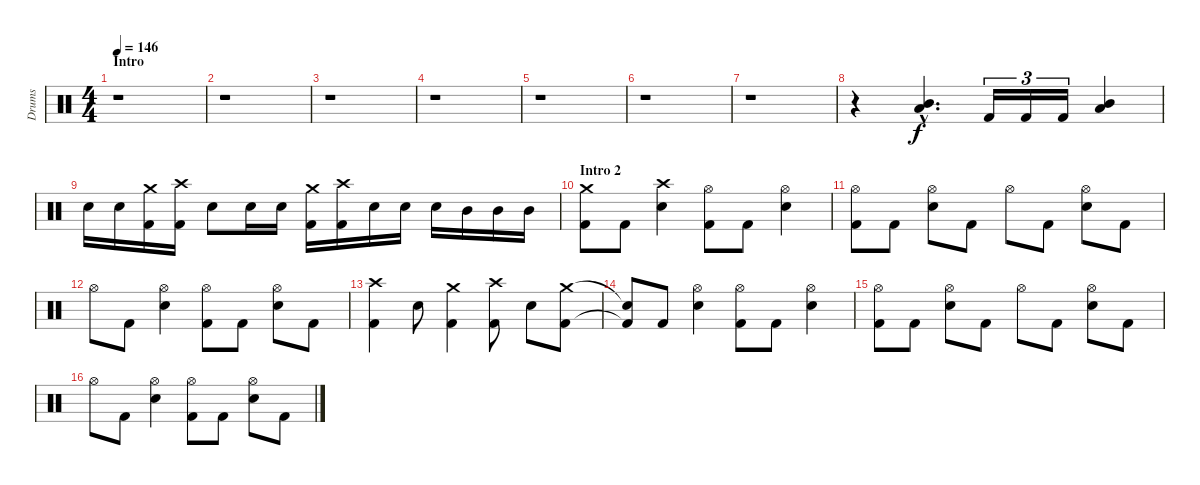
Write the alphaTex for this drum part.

\track ("Drums" "Drums") {instrument percussion}
\staff {score}
\articulation defaults
\ts (4 4)
\section ("" "Intro")
\tempo 146
\clef neutral
\ks c
r.1{dy f} |
r.1 |
r.1 |
r.1 |
r.1 |
r.1 |
r.1 |
r.4 ("Mid Tom (hit)"{hac} "Low Floor Tom (hit)"{hac}).4{d} "Kick (hit) 2".16{tu (3 2)} "Kick (hit) 2".16{tu (3 2)} "Kick (hit) 2".16{tu (3 2)} ("Mid Tom (hit)" "Low Floor Tom (hit)").4 |
"Snare (hit) 2".16 "Snare (hit) 2".16 ("Crash medium (hit)" "Kick (hit) 2").16 ("Crash high (hit)" "Kick (hit) 2").16 "Snare (hit) 2".8 "Snare (hit) 2".16 "Snare (hit) 2".16 ("Crash medium (hit)" "Kick (hit) 2").16 ("Crash high (hit)" "Kick (hit) 2").16 "Snare (hit) 2".16 "Snare (hit) 2".16 "Snare (hit) 2".16 "Mid Tom (hit)".16 "Mid Tom (hit)".16 "Mid Tom (hit)".16 |
\section ("" "Intro 2")
("Crash medium (hit)" "Kick (hit) 2").8 "Kick (hit) 2".8 ("Crash high (hit)" "Snare (hit) 2").4 ("Hi-Hat (open)" "Kick (hit) 2").8 "Kick (hit) 2".8 ("Hi-Hat (open)" "Snare (hit) 2").4 |
("Hi-Hat (open)" "Kick (hit) 2").8 "Kick (hit) 2".8 ("Hi-Hat (open)" "Snare (hit) 2").8 "Kick (hit) 2".8 "Hi-Hat (open)".8 "Kick (hit) 2".8 ("Hi-Hat (open)" "Snare (hit) 2").8 "Kick (hit) 2".8 |
"Hi-Hat (open)".8 "Kick (hit) 2".8 ("Hi-Hat (open)" "Snare (hit) 2").4 ("Hi-Hat (open)" "Kick (hit) 2").8 "Kick (hit) 2".8 ("Hi-Hat (open)" "Snare (hit) 2").8 "Kick (hit) 2".8 |
("Crash high (hit)" "Kick (hit) 2").4 "Snare (hit) 2".8 ("Crash medium (hit)" "Kick (hit) 2").4 ("Crash high (hit)" "Kick (hit) 2").8 "Snare (hit) 2".8 ("Crash medium (hit)" "Kick (hit) 2").8 |
("Snare (hit)"{t} "Kick (hit) 2"{t}).8 "Kick (hit) 2".8 ("Hi-Hat (open)" "Snare (hit) 2").4 ("Hi-Hat (open)" "Kick (hit) 2").8 "Kick (hit) 2".8 ("Hi-Hat (open)" "Snare (hit) 2").4 |
("Hi-Hat (open)" "Kick (hit) 2").8 "Kick (hit) 2".8 ("Hi-Hat (open)" "Snare (hit) 2").8 "Kick (hit) 2".8 "Hi-Hat (open)".8 "Kick (hit) 2".8 ("Hi-Hat (open)" "Snare (hit) 2").8 "Kick (hit) 2".8 |
"Hi-Hat (open)".8 "Kick (hit) 2".8 ("Hi-Hat (open)" "Snare (hit) 2").4 ("Hi-Hat (open)" "Kick (hit) 2").8 "Kick (hit) 2".8 ("Hi-Hat (open)" "Snare (hit) 2").8 "Kick (hit) 2".8
